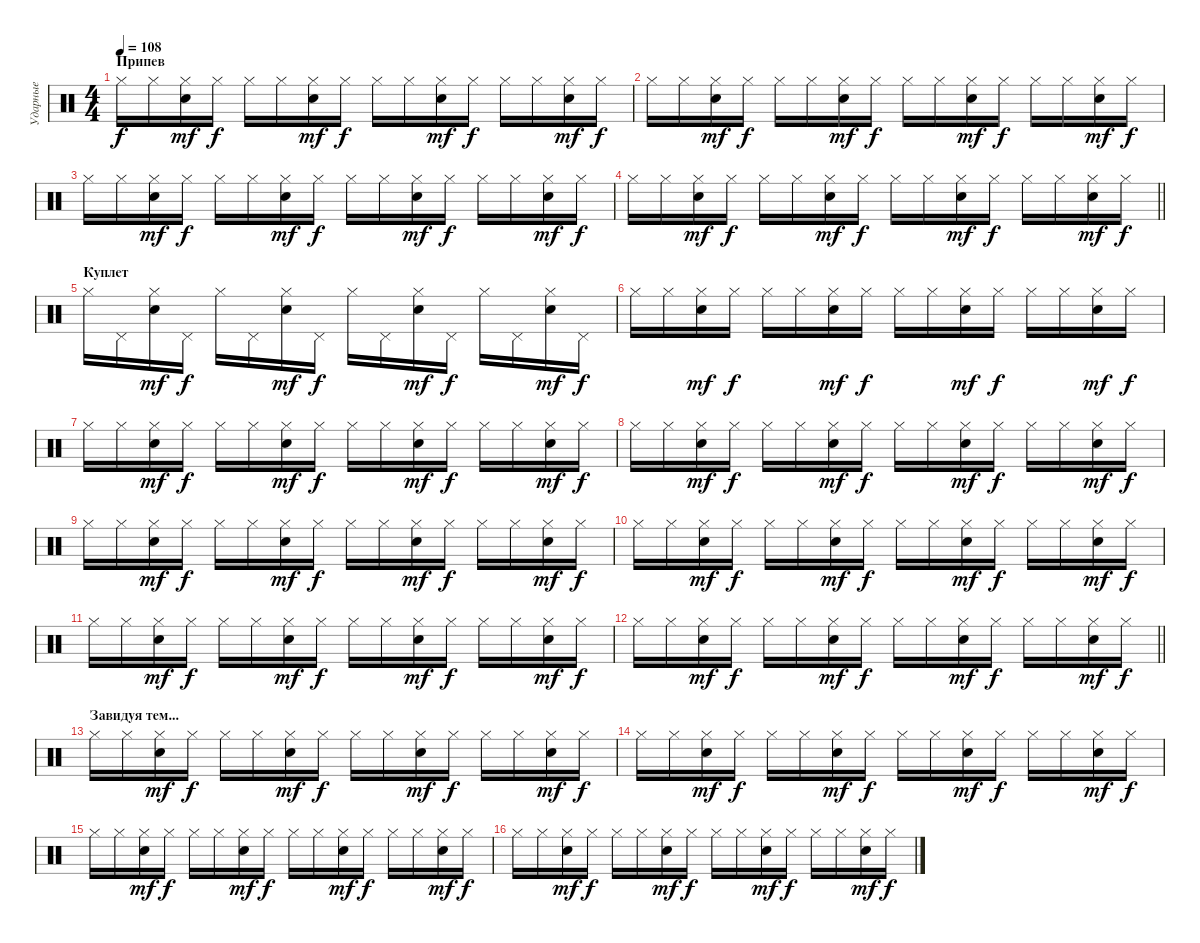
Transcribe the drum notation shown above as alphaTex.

\track ("Ударные" "Ударные") {instrument percussion}
\staff {score}
\articulation defaults
\ts (4 4)
\section ("" "Припев")
\tempo 108
\clef neutral
\ks c "Hi-Hat (closed)".16{dy f} "Hi-Hat (closed)".16
("Hi-Hat (closed)" "Snare (hit) 2").16{dy mf} "Hi-Hat (closed)".16{dy f} "Hi-Hat (closed)".16 "Hi-Hat (closed)".16 ("Hi-Hat (closed)" "Snare (hit) 2").16{dy mf} "Hi-Hat (closed)".16{dy f} "Hi-Hat (closed)".16 "Hi-Hat (closed)".16 ("Hi-Hat (closed)" "Snare (hit) 2").16{dy mf} "Hi-Hat (closed)".16{dy f} "Hi-Hat (closed)".16 "Hi-Hat (closed)".16 ("Hi-Hat (closed)" "Snare (hit) 2").16{dy mf} "Hi-Hat (closed)".16{dy f} |
"Hi-Hat (closed)".16 "Hi-Hat (closed)".16 ("Hi-Hat (closed)" "Snare (hit) 2").16{dy mf} "Hi-Hat (closed)".16{dy f} "Hi-Hat (closed)".16 "Hi-Hat (closed)".16 ("Hi-Hat (closed)" "Snare (hit) 2").16{dy mf} "Hi-Hat (closed)".16{dy f} "Hi-Hat (closed)".16 "Hi-Hat (closed)".16 ("Hi-Hat (closed)" "Snare (hit) 2").16{dy mf} "Hi-Hat (closed)".16{dy f} "Hi-Hat (closed)".16 "Hi-Hat (closed)".16 ("Hi-Hat (closed)" "Snare (hit) 2").16{dy mf} "Hi-Hat (closed)".16{dy f} |
"Hi-Hat (closed)".16 "Hi-Hat (closed)".16 ("Hi-Hat (closed)" "Snare (hit) 2").16{dy mf} "Hi-Hat (closed)".16{dy f} "Hi-Hat (closed)".16 "Hi-Hat (closed)".16 ("Hi-Hat (closed)" "Snare (hit) 2").16{dy mf} "Hi-Hat (closed)".16{dy f} "Hi-Hat (closed)".16 "Hi-Hat (closed)".16 ("Hi-Hat (closed)" "Snare (hit) 2").16{dy mf} "Hi-Hat (closed)".16{dy f} "Hi-Hat (closed)".16 "Hi-Hat (closed)".16 ("Hi-Hat (closed)" "Snare (hit) 2").16{dy mf} "Hi-Hat (closed)".16{dy f} |
\barLineRight lightlight "Hi-Hat (closed)".16 "Hi-Hat (closed)".16
("Hi-Hat (closed)" "Snare (hit) 2").16{dy mf} "Hi-Hat (closed)".16{dy f} "Hi-Hat (closed)".16 "Hi-Hat (closed)".16 ("Hi-Hat (closed)" "Snare (hit) 2").16{dy mf} "Hi-Hat (closed)".16{dy f} "Hi-Hat (closed)".16 "Hi-Hat (closed)".16 ("Hi-Hat (closed)" "Snare (hit) 2").16{dy mf} "Hi-Hat (closed)".16{dy f} "Hi-Hat (closed)".16 "Hi-Hat (closed)".16 ("Hi-Hat (closed)" "Snare (hit) 2").16{dy mf} "Hi-Hat (closed)".16{dy f} |
\section ("" "Куплет")
"Hi-Hat (closed)".16 "Pedal Hi-Hat (hit)".16 ("Hi-Hat (closed)" "Snare (hit) 2").16{dy mf} "Pedal Hi-Hat (hit)".16{dy f} "Hi-Hat (closed)".16 "Pedal Hi-Hat (hit)".16 ("Hi-Hat (closed)" "Snare (hit) 2").16{dy mf} "Pedal Hi-Hat (hit)".16{dy f} "Hi-Hat (closed)".16 "Pedal Hi-Hat (hit)".16 ("Hi-Hat (closed)" "Snare (hit) 2").16{dy mf} "Pedal Hi-Hat (hit)".16{dy f} "Hi-Hat (closed)".16 "Pedal Hi-Hat (hit)".16 ("Hi-Hat (closed)" "Snare (hit) 2").16{dy mf} "Pedal Hi-Hat (hit)".16{dy f} |
"Hi-Hat (closed)".16 "Hi-Hat (closed)".16 ("Hi-Hat (closed)" "Snare (hit) 2").16{dy mf} "Hi-Hat (closed)".16{dy f} "Hi-Hat (closed)".16 "Hi-Hat (closed)".16 ("Hi-Hat (closed)" "Snare (hit) 2").16{dy mf} "Hi-Hat (closed)".16{dy f} "Hi-Hat (closed)".16 "Hi-Hat (closed)".16 ("Hi-Hat (closed)" "Snare (hit) 2").16{dy mf} "Hi-Hat (closed)".16{dy f} "Hi-Hat (closed)".16 "Hi-Hat (closed)".16 ("Hi-Hat (closed)" "Snare (hit) 2").16{dy mf} "Hi-Hat (closed)".16{dy f} |
"Hi-Hat (closed)".16 "Hi-Hat (closed)".16 ("Hi-Hat (closed)" "Snare (hit) 2").16{dy mf} "Hi-Hat (closed)".16{dy f} "Hi-Hat (closed)".16 "Hi-Hat (closed)".16 ("Hi-Hat (closed)" "Snare (hit) 2").16{dy mf} "Hi-Hat (closed)".16{dy f} "Hi-Hat (closed)".16 "Hi-Hat (closed)".16 ("Hi-Hat (closed)" "Snare (hit) 2").16{dy mf} "Hi-Hat (closed)".16{dy f} "Hi-Hat (closed)".16 "Hi-Hat (closed)".16 ("Hi-Hat (closed)" "Snare (hit) 2").16{dy mf} "Hi-Hat (closed)".16{dy f} |
"Hi-Hat (closed)".16 "Hi-Hat (closed)".16 ("Hi-Hat (closed)" "Snare (hit) 2").16{dy mf} "Hi-Hat (closed)".16{dy f} "Hi-Hat (closed)".16 "Hi-Hat (closed)".16 ("Hi-Hat (closed)" "Snare (hit) 2").16{dy mf} "Hi-Hat (closed)".16{dy f} "Hi-Hat (closed)".16 "Hi-Hat (closed)".16 ("Hi-Hat (closed)" "Snare (hit) 2").16{dy mf} "Hi-Hat (closed)".16{dy f} "Hi-Hat (closed)".16 "Hi-Hat (closed)".16 ("Hi-Hat (closed)" "Snare (hit) 2").16{dy mf} "Hi-Hat (closed)".16{dy f} |
"Hi-Hat (closed)".16 "Hi-Hat (closed)".16 ("Hi-Hat (closed)" "Snare (hit) 2").16{dy mf} "Hi-Hat (closed)".16{dy f} "Hi-Hat (closed)".16 "Hi-Hat (closed)".16 ("Hi-Hat (closed)" "Snare (hit) 2").16{dy mf} "Hi-Hat (closed)".16{dy f} "Hi-Hat (closed)".16 "Hi-Hat (closed)".16 ("Hi-Hat (closed)" "Snare (hit) 2").16{dy mf} "Hi-Hat (closed)".16{dy f} "Hi-Hat (closed)".16 "Hi-Hat (closed)".16 ("Hi-Hat (closed)" "Snare (hit) 2").16{dy mf} "Hi-Hat (closed)".16{dy f} |
"Hi-Hat (closed)".16 "Hi-Hat (closed)".16 ("Hi-Hat (closed)" "Snare (hit) 2").16{dy mf} "Hi-Hat (closed)".16{dy f} "Hi-Hat (closed)".16 "Hi-Hat (closed)".16 ("Hi-Hat (closed)" "Snare (hit) 2").16{dy mf} "Hi-Hat (closed)".16{dy f} "Hi-Hat (closed)".16 "Hi-Hat (closed)".16 ("Hi-Hat (closed)" "Snare (hit) 2").16{dy mf} "Hi-Hat (closed)".16{dy f} "Hi-Hat (closed)".16 "Hi-Hat (closed)".16 ("Hi-Hat (closed)" "Snare (hit) 2").16{dy mf} "Hi-Hat (closed)".16{dy f} |
"Hi-Hat (closed)".16 "Hi-Hat (closed)".16 ("Hi-Hat (closed)" "Snare (hit) 2").16{dy mf} "Hi-Hat (closed)".16{dy f} "Hi-Hat (closed)".16 "Hi-Hat (closed)".16 ("Hi-Hat (closed)" "Snare (hit) 2").16{dy mf} "Hi-Hat (closed)".16{dy f} "Hi-Hat (closed)".16 "Hi-Hat (closed)".16 ("Hi-Hat (closed)" "Snare (hit) 2").16{dy mf} "Hi-Hat (closed)".16{dy f} "Hi-Hat (closed)".16 "Hi-Hat (closed)".16 ("Hi-Hat (closed)" "Snare (hit) 2").16{dy mf} "Hi-Hat (closed)".16{dy f} |
\barLineRight lightlight "Hi-Hat (closed)".16 "Hi-Hat (closed)".16
("Hi-Hat (closed)" "Snare (hit) 2").16{dy mf} "Hi-Hat (closed)".16{dy f} "Hi-Hat (closed)".16 "Hi-Hat (closed)".16 ("Hi-Hat (closed)" "Snare (hit) 2").16{dy mf} "Hi-Hat (closed)".16{dy f} "Hi-Hat (closed)".16 "Hi-Hat (closed)".16 ("Hi-Hat (closed)" "Snare (hit) 2").16{dy mf} "Hi-Hat (closed)".16{dy f} "Hi-Hat (closed)".16 "Hi-Hat (closed)".16 ("Hi-Hat (closed)" "Snare (hit) 2").16{dy mf} "Hi-Hat (closed)".16{dy f} |
\section ("" "Завидуя тем...")
"Hi-Hat (closed)".16 "Hi-Hat (closed)".16 ("Hi-Hat (closed)" "Snare (hit) 2").16{dy mf} "Hi-Hat (closed)".16{dy f} "Hi-Hat (closed)".16 "Hi-Hat (closed)".16 ("Hi-Hat (closed)" "Snare (hit) 2").16{dy mf} "Hi-Hat (closed)".16{dy f} "Hi-Hat (closed)".16 "Hi-Hat (closed)".16 ("Hi-Hat (closed)" "Snare (hit) 2").16{dy mf} "Hi-Hat (closed)".16{dy f} "Hi-Hat (closed)".16 "Hi-Hat (closed)".16 ("Hi-Hat (closed)" "Snare (hit) 2").16{dy mf} "Hi-Hat (closed)".16{dy f} |
"Hi-Hat (closed)".16 "Hi-Hat (closed)".16 ("Hi-Hat (closed)" "Snare (hit) 2").16{dy mf} "Hi-Hat (closed)".16{dy f} "Hi-Hat (closed)".16 "Hi-Hat (closed)".16 ("Hi-Hat (closed)" "Snare (hit) 2").16{dy mf} "Hi-Hat (closed)".16{dy f} "Hi-Hat (closed)".16 "Hi-Hat (closed)".16 ("Hi-Hat (closed)" "Snare (hit) 2").16{dy mf} "Hi-Hat (closed)".16{dy f} "Hi-Hat (closed)".16 "Hi-Hat (closed)".16 ("Hi-Hat (closed)" "Snare (hit) 2").16{dy mf} "Hi-Hat (closed)".16{dy f} |
"Hi-Hat (closed)".16 "Hi-Hat (closed)".16 ("Hi-Hat (closed)" "Snare (hit) 2").16{dy mf} "Hi-Hat (closed)".16{dy f} "Hi-Hat (closed)".16 "Hi-Hat (closed)".16 ("Hi-Hat (closed)" "Snare (hit) 2").16{dy mf} "Hi-Hat (closed)".16{dy f} "Hi-Hat (closed)".16 "Hi-Hat (closed)".16 ("Hi-Hat (closed)" "Snare (hit) 2").16{dy mf} "Hi-Hat (closed)".16{dy f} "Hi-Hat (closed)".16 "Hi-Hat (closed)".16 ("Hi-Hat (closed)" "Snare (hit) 2").16{dy mf} "Hi-Hat (closed)".16{dy f} |
"Hi-Hat (closed)".16 "Hi-Hat (closed)".16 ("Hi-Hat (closed)" "Snare (hit) 2").16{dy mf} "Hi-Hat (closed)".16{dy f} "Hi-Hat (closed)".16 "Hi-Hat (closed)".16 ("Hi-Hat (closed)" "Snare (hit) 2").16{dy mf} "Hi-Hat (closed)".16{dy f} "Hi-Hat (closed)".16 "Hi-Hat (closed)".16 ("Hi-Hat (closed)" "Snare (hit) 2").16{dy mf} "Hi-Hat (closed)".16{dy f} "Hi-Hat (closed)".16 "Hi-Hat (closed)".16 ("Hi-Hat (closed)" "Snare (hit) 2").16{dy mf} "Hi-Hat (closed)".16{dy f}
